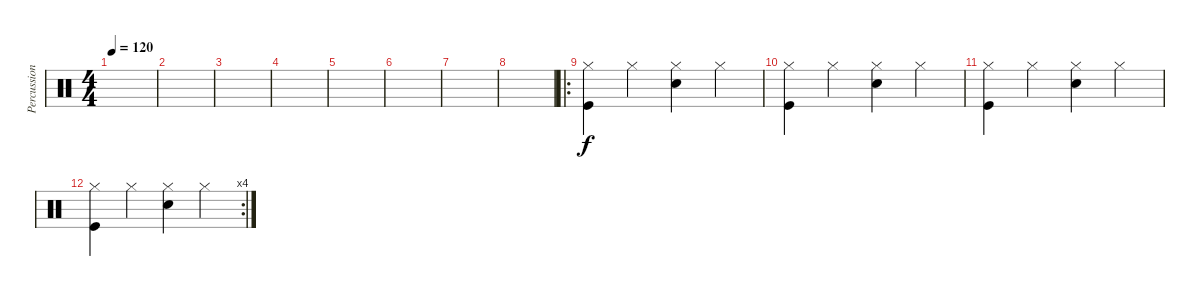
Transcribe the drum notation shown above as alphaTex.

\track ("Percussion" "Percussion") {instrument percussion}
\staff {score}
\articulation defaults
\ts (4 4)
\tempo 120
\clef neutral
\ks c
|
|
|
|
|
|
|
|
\ro
("Hi-Hat (closed)" "Kick (hit)").4{dy f} "Hi-Hat (closed)".4 ("Hi-Hat (closed)" "Snare (hit) 2").4 "Hi-Hat (closed)".4 |
("Hi-Hat (closed)" "Kick (hit)").4 "Hi-Hat (closed)".4 ("Hi-Hat (closed)" "Snare (hit) 2").4 "Hi-Hat (closed)".4 |
("Hi-Hat (closed)" "Kick (hit)").4 "Hi-Hat (closed)".4 ("Hi-Hat (closed)" "Snare (hit) 2").4 "Hi-Hat (closed)".4 |
\rc 4
("Hi-Hat (closed)" "Kick (hit)").4 "Hi-Hat (closed)".4 ("Hi-Hat (closed)" "Snare (hit) 2").4 "Hi-Hat (closed)".4
